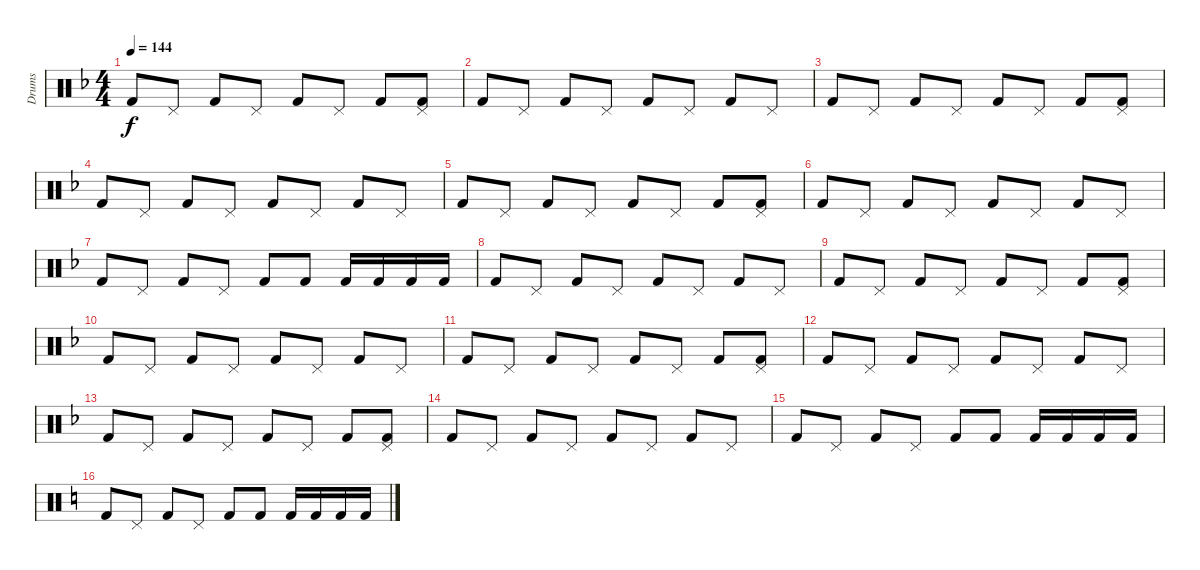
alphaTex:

\track ("Drums" "Drums") {instrument percussion}
\staff {score}
\articulation defaults
\ts (4 4)
\tempo 144
\clef neutral
\ks f "Kick (hit) 2".8{dy f} "Pedal Hi-Hat (hit)".8 "Kick (hit) 2".8 "Pedal Hi-Hat (hit)".8 "Kick (hit) 2".8 "Pedal Hi-Hat (hit)".8 "Kick (hit) 2".8
("Kick (hit) 2" "Pedal Hi-Hat (hit)").8 |
"Kick (hit) 2".8 "Pedal Hi-Hat (hit)".8 "Kick (hit) 2".8 "Pedal Hi-Hat (hit)".8 "Kick (hit) 2".8 "Pedal Hi-Hat (hit)".8 "Kick (hit) 2".8 "Pedal Hi-Hat (hit)".8 |
"Kick (hit) 2".8 "Pedal Hi-Hat (hit)".8 "Kick (hit) 2".8 "Pedal Hi-Hat (hit)".8 "Kick (hit) 2".8 "Pedal Hi-Hat (hit)".8 "Kick (hit) 2".8 ("Kick (hit) 2" "Pedal Hi-Hat (hit)").8 |
"Kick (hit) 2".8 "Pedal Hi-Hat (hit)".8 "Kick (hit) 2".8 "Pedal Hi-Hat (hit)".8 "Kick (hit) 2".8 "Pedal Hi-Hat (hit)".8 "Kick (hit) 2".8 "Pedal Hi-Hat (hit)".8 |
"Kick (hit) 2".8 "Pedal Hi-Hat (hit)".8 "Kick (hit) 2".8 "Pedal Hi-Hat (hit)".8 "Kick (hit) 2".8 "Pedal Hi-Hat (hit)".8 "Kick (hit) 2".8 ("Kick (hit) 2" "Pedal Hi-Hat (hit)").8 |
"Kick (hit) 2".8 "Pedal Hi-Hat (hit)".8 "Kick (hit) 2".8 "Pedal Hi-Hat (hit)".8 "Kick (hit) 2".8 "Pedal Hi-Hat (hit)".8 "Kick (hit) 2".8 "Pedal Hi-Hat (hit)".8 |
"Kick (hit) 2".8 "Pedal Hi-Hat (hit)".8 "Kick (hit) 2".8 "Pedal Hi-Hat (hit)".8 "Kick (hit) 2".8 "Kick (hit) 2".8 "Kick (hit) 2".16 "Kick (hit) 2".16 "Kick (hit) 2".16 "Kick (hit) 2".16 |
"Kick (hit) 2".8 "Pedal Hi-Hat (hit)".8 "Kick (hit) 2".8 "Pedal Hi-Hat (hit)".8 "Kick (hit) 2".8 "Pedal Hi-Hat (hit)".8 "Kick (hit) 2".8 "Pedal Hi-Hat (hit)".8 |
"Kick (hit) 2".8 "Pedal Hi-Hat (hit)".8 "Kick (hit) 2".8 "Pedal Hi-Hat (hit)".8 "Kick (hit) 2".8 "Pedal Hi-Hat (hit)".8 "Kick (hit) 2".8 ("Kick (hit) 2" "Pedal Hi-Hat (hit)").8 |
"Kick (hit) 2".8 "Pedal Hi-Hat (hit)".8 "Kick (hit) 2".8 "Pedal Hi-Hat (hit)".8 "Kick (hit) 2".8 "Pedal Hi-Hat (hit)".8 "Kick (hit) 2".8 "Pedal Hi-Hat (hit)".8 |
"Kick (hit) 2".8 "Pedal Hi-Hat (hit)".8 "Kick (hit) 2".8 "Pedal Hi-Hat (hit)".8 "Kick (hit) 2".8 "Pedal Hi-Hat (hit)".8 "Kick (hit) 2".8 ("Kick (hit) 2" "Pedal Hi-Hat (hit)").8 |
"Kick (hit) 2".8 "Pedal Hi-Hat (hit)".8 "Kick (hit) 2".8 "Pedal Hi-Hat (hit)".8 "Kick (hit) 2".8 "Pedal Hi-Hat (hit)".8 "Kick (hit) 2".8 "Pedal Hi-Hat (hit)".8 |
"Kick (hit) 2".8 "Pedal Hi-Hat (hit)".8 "Kick (hit) 2".8 "Pedal Hi-Hat (hit)".8 "Kick (hit) 2".8 "Pedal Hi-Hat (hit)".8 "Kick (hit) 2".8 ("Kick (hit) 2" "Pedal Hi-Hat (hit)").8 |
"Kick (hit) 2".8 "Pedal Hi-Hat (hit)".8 "Kick (hit) 2".8 "Pedal Hi-Hat (hit)".8 "Kick (hit) 2".8 "Pedal Hi-Hat (hit)".8 "Kick (hit) 2".8 "Pedal Hi-Hat (hit)".8 |
"Kick (hit) 2".8 "Pedal Hi-Hat (hit)".8 "Kick (hit) 2".8 "Pedal Hi-Hat (hit)".8 "Kick (hit) 2".8 "Kick (hit) 2".8 "Kick (hit) 2".16 "Kick (hit) 2".16 "Kick (hit) 2".16 "Kick (hit) 2".16 |
\ks c "Kick (hit) 2".8 "Pedal Hi-Hat (hit)".8 "Kick (hit) 2".8 "Pedal Hi-Hat (hit)".8 "Kick (hit) 2".8 "Kick (hit) 2".8 "Kick (hit) 2".16 "Kick (hit) 2".16 "Kick (hit) 2".16 "Kick (hit) 2".16
